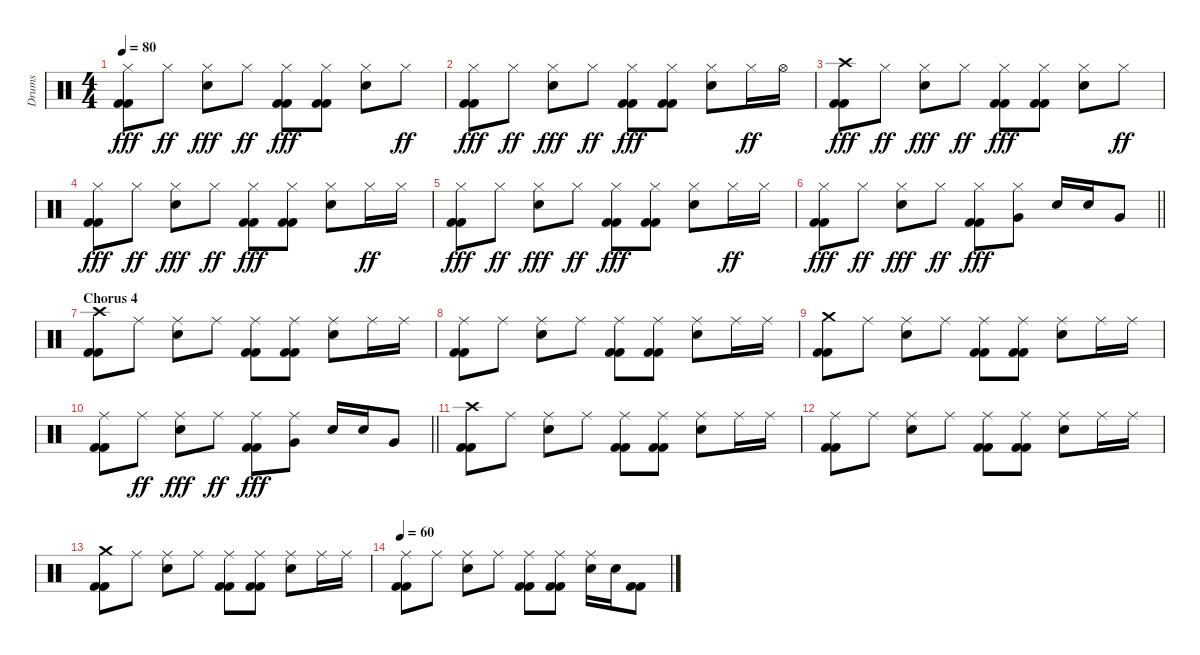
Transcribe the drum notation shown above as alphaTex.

\track ("Drums" "Drums") {instrument percussion}
\staff {score}
\articulation defaults
\ts (4 4)
\tempo 80
\clef neutral
\ks c
("Hi-Hat (closed)" "Kick (hit) 2" "Kick (hit) 2").8{dy fff} "Hi-Hat (closed)".8{dy ff} ("Hi-Hat (closed)" "Electric Snare (hit)").8{dy fff} "Hi-Hat (closed)".8{dy ff} ("Hi-Hat (closed)" "Kick (hit) 2" "Kick (hit) 2").8{dy fff} ("Hi-Hat (closed)" "Kick (hit) 2" "Kick (hit) 2").8 ("Hi-Hat (closed)" "Electric Snare (hit)").8 "Hi-Hat (closed)".8{dy ff} |
("Hi-Hat (closed)" "Kick (hit) 2" "Kick (hit) 2").8{dy fff} "Hi-Hat (closed)".8{dy ff} ("Hi-Hat (closed)" "Electric Snare (hit)").8{dy fff} "Hi-Hat (closed)".8{dy ff} ("Hi-Hat (closed)" "Kick (hit) 2" "Kick (hit) 2").8{dy fff} ("Hi-Hat (closed)" "Kick (hit) 2" "Kick (hit) 2").8 ("Hi-Hat (closed)" "Electric Snare (hit)").8 "Hi-Hat (closed)".16{dy ff} "Hi-Hat (open)".16 |
("Crash high (hit)" "Kick (hit) 2" "Kick (hit) 2").8{dy fff} "Hi-Hat (closed)".8{dy ff} ("Hi-Hat (closed)" "Electric Snare (hit)").8{dy fff} "Hi-Hat (closed)".8{dy ff} ("Hi-Hat (closed)" "Kick (hit) 2" "Kick (hit) 2").8{dy fff} ("Hi-Hat (closed)" "Kick (hit) 2" "Kick (hit) 2").8 ("Hi-Hat (closed)" "Electric Snare (hit)").8 "Hi-Hat (closed)".8{dy ff} |
("Hi-Hat (closed)" "Kick (hit) 2" "Kick (hit) 2").8{dy fff} "Hi-Hat (closed)".8{dy ff} ("Hi-Hat (closed)" "Electric Snare (hit)").8{dy fff} "Hi-Hat (closed)".8{dy ff} ("Hi-Hat (closed)" "Kick (hit) 2" "Kick (hit) 2").8{dy fff} ("Hi-Hat (closed)" "Kick (hit) 2" "Kick (hit) 2").8 ("Hi-Hat (closed)" "Electric Snare (hit)").8 "Hi-Hat (closed)".16{dy ff} "Hi-Hat (closed)".16 |
("Hi-Hat (closed)" "Kick (hit) 2" "Kick (hit) 2").8{dy fff} "Hi-Hat (closed)".8{dy ff} ("Hi-Hat (closed)" "Electric Snare (hit)").8{dy fff} "Hi-Hat (closed)".8{dy ff} ("Hi-Hat (closed)" "Kick (hit) 2" "Kick (hit) 2").8{dy fff} ("Hi-Hat (closed)" "Kick (hit) 2" "Kick (hit) 2").8 ("Hi-Hat (closed)" "Electric Snare (hit)").8 "Hi-Hat (closed)".16{dy ff} "Hi-Hat (closed)".16 |
\barLineRight lightlight
("Hi-Hat (closed)" "Kick (hit) 2" "Kick (hit) 2").8{dy fff} "Hi-Hat (closed)".8{dy ff} ("Hi-Hat (closed)" "Electric Snare (hit)").8{dy fff} "Hi-Hat (closed)".8{dy ff} ("Hi-Hat (closed)" "Kick (hit) 2" "Kick (hit) 2").8{dy fff} ("Hi-Hat (closed)" "Very Low Tom (hit)").8 "Electric Snare (hit)".16 "Electric Snare (hit)".16 "Very Low Tom (hit)".8 |
\section ("" "Chorus 4")
("Crash high (hit)" "Kick (hit) 2" "Kick (hit) 2").8 "Ride (middle)".8 ("Ride (middle)" "Electric Snare (hit)").8 "Ride (middle)".8 ("Ride (middle)" "Kick (hit) 2" "Kick (hit) 2").8 ("Ride (middle)" "Kick (hit) 2" "Kick (hit) 2").8 ("Ride (middle)" "Electric Snare (hit)").8 "Ride (middle)".16 "Ride (middle)".16 |
("Ride (middle)" "Kick (hit) 2" "Kick (hit) 2").8 "Ride (middle)".8 ("Ride (middle)" "Electric Snare (hit)").8 "Ride (middle)".8 ("Ride (middle)" "Kick (hit) 2" "Kick (hit) 2").8 ("Ride (middle)" "Kick (hit) 2" "Kick (hit) 2").8 ("Ride (middle)" "Electric Snare (hit)").8 "Ride (middle)".16 "Ride (middle)".16 |
("Crash medium (hit)" "Kick (hit) 2" "Kick (hit) 2").8 "Ride (middle)".8 ("Ride (middle)" "Electric Snare (hit)").8 "Ride (middle)".8 ("Ride (middle)" "Kick (hit) 2" "Kick (hit) 2").8 ("Ride (middle)" "Kick (hit) 2" "Kick (hit) 2").8 ("Ride (middle)" "Electric Snare (hit)").8 "Ride (middle)".16 "Ride (middle)".16 |
\barLineRight lightlight
("Ride (middle)" "Kick (hit) 2" "Kick (hit) 2").8 "Ride (middle)".8{dy ff} ("Ride (middle)" "Electric Snare (hit)").8{dy fff} "Ride (middle)".8{dy ff} ("Ride (middle)" "Kick (hit) 2" "Kick (hit) 2").8{dy fff} ("Ride (middle)" "Very Low Tom (hit)").8 "Electric Snare (hit)".16 "Electric Snare (hit)".16 "Very Low Tom (hit)".8 |
("Crash high (hit)" "Kick (hit) 2" "Kick (hit) 2").8 "Ride (middle)".8 ("Ride (middle)" "Electric Snare (hit)").8 "Ride (middle)".8 ("Ride (middle)" "Kick (hit) 2" "Kick (hit) 2").8 ("Ride (middle)" "Kick (hit) 2" "Kick (hit) 2").8 ("Ride (middle)" "Electric Snare (hit)").8 "Ride (middle)".16 "Ride (middle)".16 |
("Ride (middle)" "Kick (hit) 2" "Kick (hit) 2").8 "Ride (middle)".8 ("Ride (middle)" "Electric Snare (hit)").8 "Ride (middle)".8 ("Ride (middle)" "Kick (hit) 2" "Kick (hit) 2").8 ("Ride (middle)" "Kick (hit) 2" "Kick (hit) 2").8 ("Ride (middle)" "Electric Snare (hit)").8 "Ride (middle)".16 "Ride (middle)".16 |
("Crash medium (hit)" "Kick (hit) 2" "Kick (hit) 2").8 "Ride (middle)".8 ("Ride (middle)" "Electric Snare (hit)").8 "Ride (middle)".8 ("Ride (middle)" "Kick (hit) 2" "Kick (hit) 2").8 ("Ride (middle)" "Kick (hit) 2" "Kick (hit) 2").8 ("Ride (middle)" "Electric Snare (hit)").8 "Ride (middle)".16 "Ride (middle)".16 |
\tempo 60
("Ride (middle)" "Kick (hit) 2" "Kick (hit) 2").8 "Ride (middle)".8 ("Ride (middle)" "Electric Snare (hit)").8 "Ride (middle)".8 ("Ride (middle)" "Kick (hit) 2" "Kick (hit) 2").8 ("Ride (middle)" "Kick (hit) 2" "Kick (hit) 2").8 ("Ride (middle)" "Electric Snare (hit)").16 "Electric Snare (hit)".16 ("Kick (hit) 2" "Kick (hit) 2").8
